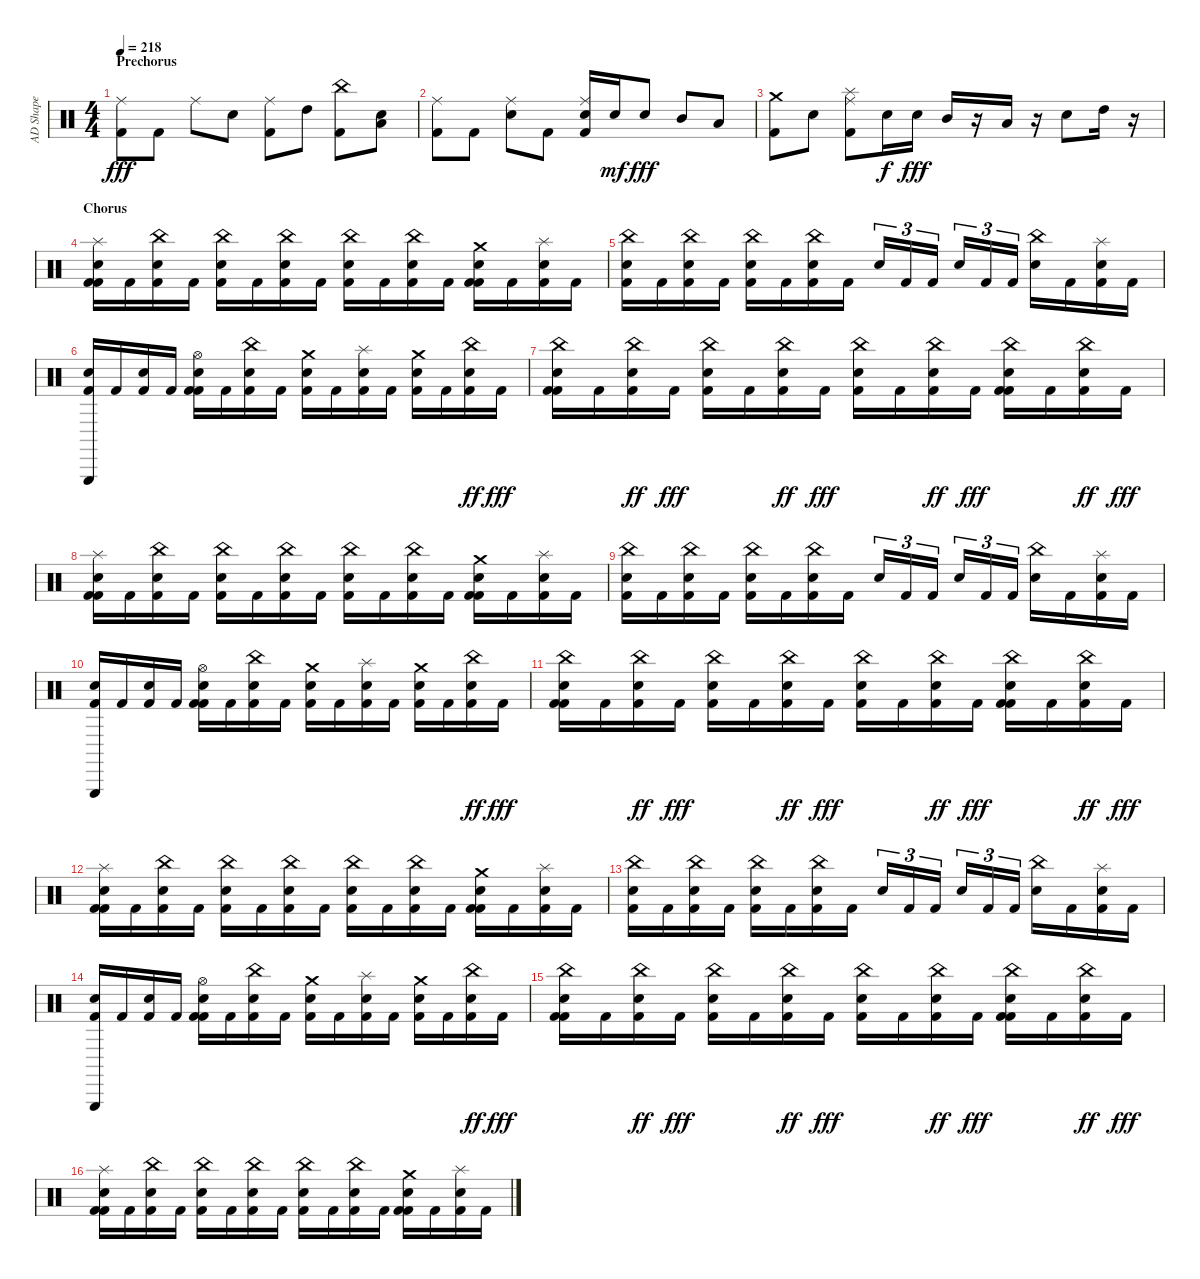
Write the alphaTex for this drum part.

\track ("AD Shape" "AD Shape") {instrument percussion}
\staff {score}
\articulation defaults
\ts (4 4)
\section ("" "Prechorus")
\tempo 218
\clef neutral
\ks c
("Kick (hit) 2" "Ride (middle)").8{dy fff} "Kick (hit) 2".8 "Ride (middle)".8 "Snare (hit) 2".8 ("Kick (hit) 2" "Ride (middle)").8 "High Tom (hit)".8 ("Kick (hit) 2" "China (hit)").8 ("Snare (hit) 2" "Low Tom (hit)").8 |
("Kick (hit) 2" "Ride (middle)").8 "Kick (hit) 2".8 ("Snare (hit) 2" "Ride (middle)").8 "Kick (hit) 2".8 ("Kick (hit) 2" "Snare (hit) 2" "Ride (middle)").16 "Snare (hit) 2".16{dy mf} "Snare (hit) 2".8{dy fff} "Mid Tom (hit)".8 "Low Tom (hit)".8 |
("Kick (hit) 2" "Crash medium (hit)").8 "Snare (hit) 2".8 ("Kick (hit) 2" "Ride (middle)" "Splash (hit)").8 "Snare (hit) 2".16{dy f} "Snare (hit) 2".16{dy fff} "Mid Tom (hit)".16 r.16 "Low Tom (hit)".16 r.16 "Snare (hit) 2".8 "High Tom (hit)".16 r.16 |
\section ("" "Chorus")
("Kick (hit) 2" "Kick (hit) 2" "Snare (hit) 2" "Splash (hit)").16 "Kick (hit) 2".16 ("Kick (hit) 2" "Snare (hit) 2" "China (hit)").16 "Kick (hit) 2".16 ("Kick (hit) 2" "Snare (hit) 2" "China (hit)").16 "Kick (hit) 2".16 ("Kick (hit) 2" "Snare (hit) 2" "China (hit)").16 "Kick (hit) 2".16 ("Kick (hit) 2" "Snare (hit) 2" "China (hit)").16 "Kick (hit) 2".16 ("Kick (hit) 2" "Snare (hit) 2" "China (hit)").16 "Kick (hit) 2".16 ("Kick (hit) 2" "Kick (hit) 2" "Snare (hit) 2" "Crash medium (hit)").16 "Kick (hit) 2".16 ("Kick (hit) 2" "Snare (hit) 2" "Splash (hit)").16 "Kick (hit) 2".16 |
("Kick (hit) 2" "Snare (hit) 2" "China (hit)").16 "Kick (hit) 2".16 ("Kick (hit) 2" "Snare (hit) 2" "China (hit)").16 "Kick (hit) 2".16 ("Kick (hit) 2" "Snare (hit) 2" "China (hit)").16 "Kick (hit) 2".16 ("Kick (hit) 2" "Snare (hit) 2" "China (hit)").16 "Kick (hit) 2".16 "Snare (hit) 2".16{tu (3 2)} "Kick (hit) 2".16{tu (3 2)} "Kick (hit) 2".16{tu (3 2)} "Snare (hit) 2".16{tu (3 2)} "Kick (hit) 2".16{tu (3 2)} "Kick (hit) 2".16{tu (3 2)} ("Snare (hit) 2" "China (hit)").16 "Kick (hit) 2".16 ("Kick (hit) 2" "Snare (hit) 2" "Splash (hit)").16 "Kick (hit) 2".16 |
("Kick (hit) 2" "Snare (hit) 2" "Triangle (hit)").16 "Kick (hit) 2".16 ("Kick (hit) 2" "Snare (hit) 2").16 "Kick (hit) 2".16 ("Kick (hit) 2" "Kick (hit) 2" "Snare (hit) 2" "Hi-Hat (open)").16 "Kick (hit) 2".16 ("Kick (hit) 2" "Snare (hit) 2" "China (hit)").16 "Kick (hit) 2".16 ("Kick (hit) 2" "Snare (hit) 2" "Crash medium (hit)").16 "Kick (hit) 2".16 ("Kick (hit) 2" "Snare (hit) 2" "Splash (hit)").16 "Kick (hit) 2".16 ("Kick (hit) 2" "Snare (hit) 2" "Crash medium (hit)").16 "Kick (hit) 2".16 ("Kick (hit) 2" "Snare (hit) 2" "China (hit)").16{dy ff} "Kick (hit) 2".16{dy fff} |
("Kick (hit) 2" "Kick (hit) 2" "Snare (hit) 2" "China (hit)").16 "Kick (hit) 2".16 ("Kick (hit) 2" "Snare (hit) 2" "China (hit)").16{dy ff} "Kick (hit) 2".16{dy fff} ("Kick (hit) 2" "Snare (hit) 2" "China (hit)").16 "Kick (hit) 2".16 ("Kick (hit) 2" "Snare (hit) 2" "China (hit)").16{dy ff} "Kick (hit) 2".16{dy fff} ("Kick (hit) 2" "Snare (hit) 2" "China (hit)").16 "Kick (hit) 2".16 ("Kick (hit) 2" "Snare (hit) 2" "China (hit)").16{dy ff} "Kick (hit) 2".16{dy fff} ("Kick (hit) 2" "Kick (hit) 2" "Snare (hit) 2" "China (hit)").16 "Kick (hit) 2".16 ("Kick (hit) 2" "Snare (hit) 2" "China (hit)").16{dy ff} "Kick (hit) 2".16{dy fff} |
("Kick (hit) 2" "Kick (hit) 2" "Snare (hit) 2" "Splash (hit)").16 "Kick (hit) 2".16 ("Kick (hit) 2" "Snare (hit) 2" "China (hit)").16 "Kick (hit) 2".16 ("Kick (hit) 2" "Snare (hit) 2" "China (hit)").16 "Kick (hit) 2".16 ("Kick (hit) 2" "Snare (hit) 2" "China (hit)").16 "Kick (hit) 2".16 ("Kick (hit) 2" "Snare (hit) 2" "China (hit)").16 "Kick (hit) 2".16 ("Kick (hit) 2" "Snare (hit) 2" "China (hit)").16 "Kick (hit) 2".16 ("Kick (hit) 2" "Kick (hit) 2" "Snare (hit) 2" "Crash medium (hit)").16 "Kick (hit) 2".16 ("Kick (hit) 2" "Snare (hit) 2" "Splash (hit)").16 "Kick (hit) 2".16 |
("Kick (hit) 2" "Snare (hit) 2" "China (hit)").16 "Kick (hit) 2".16 ("Kick (hit) 2" "Snare (hit) 2" "China (hit)").16 "Kick (hit) 2".16 ("Kick (hit) 2" "Snare (hit) 2" "China (hit)").16 "Kick (hit) 2".16 ("Kick (hit) 2" "Snare (hit) 2" "China (hit)").16 "Kick (hit) 2".16 "Snare (hit) 2".16{tu (3 2)} "Kick (hit) 2".16{tu (3 2)} "Kick (hit) 2".16{tu (3 2)} "Snare (hit) 2".16{tu (3 2)} "Kick (hit) 2".16{tu (3 2)} "Kick (hit) 2".16{tu (3 2)} ("Snare (hit) 2" "China (hit)").16 "Kick (hit) 2".16 ("Kick (hit) 2" "Snare (hit) 2" "Splash (hit)").16 "Kick (hit) 2".16 |
("Kick (hit) 2" "Snare (hit) 2" "Triangle (hit)").16 "Kick (hit) 2".16 ("Kick (hit) 2" "Snare (hit) 2").16 "Kick (hit) 2".16 ("Kick (hit) 2" "Kick (hit) 2" "Snare (hit) 2" "Hi-Hat (open)").16 "Kick (hit) 2".16 ("Kick (hit) 2" "Snare (hit) 2" "China (hit)").16 "Kick (hit) 2".16 ("Kick (hit) 2" "Snare (hit) 2" "Crash medium (hit)").16 "Kick (hit) 2".16 ("Kick (hit) 2" "Snare (hit) 2" "Splash (hit)").16 "Kick (hit) 2".16 ("Kick (hit) 2" "Snare (hit) 2" "Crash medium (hit)").16 "Kick (hit) 2".16 ("Kick (hit) 2" "Snare (hit) 2" "China (hit)").16{dy ff} "Kick (hit) 2".16{dy fff} |
("Kick (hit) 2" "Kick (hit) 2" "Snare (hit) 2" "China (hit)").16 "Kick (hit) 2".16 ("Kick (hit) 2" "Snare (hit) 2" "China (hit)").16{dy ff} "Kick (hit) 2".16{dy fff} ("Kick (hit) 2" "Snare (hit) 2" "China (hit)").16 "Kick (hit) 2".16 ("Kick (hit) 2" "Snare (hit) 2" "China (hit)").16{dy ff} "Kick (hit) 2".16{dy fff} ("Kick (hit) 2" "Snare (hit) 2" "China (hit)").16 "Kick (hit) 2".16 ("Kick (hit) 2" "Snare (hit) 2" "China (hit)").16{dy ff} "Kick (hit) 2".16{dy fff} ("Kick (hit) 2" "Kick (hit) 2" "Snare (hit) 2" "China (hit)").16 "Kick (hit) 2".16 ("Kick (hit) 2" "Snare (hit) 2" "China (hit)").16{dy ff} "Kick (hit) 2".16{dy fff} |
("Kick (hit) 2" "Kick (hit) 2" "Snare (hit) 2" "Splash (hit)").16 "Kick (hit) 2".16 ("Kick (hit) 2" "Snare (hit) 2" "China (hit)").16 "Kick (hit) 2".16 ("Kick (hit) 2" "Snare (hit) 2" "China (hit)").16 "Kick (hit) 2".16 ("Kick (hit) 2" "Snare (hit) 2" "China (hit)").16 "Kick (hit) 2".16 ("Kick (hit) 2" "Snare (hit) 2" "China (hit)").16 "Kick (hit) 2".16 ("Kick (hit) 2" "Snare (hit) 2" "China (hit)").16 "Kick (hit) 2".16 ("Kick (hit) 2" "Kick (hit) 2" "Snare (hit) 2" "Crash medium (hit)").16 "Kick (hit) 2".16 ("Kick (hit) 2" "Snare (hit) 2" "Splash (hit)").16 "Kick (hit) 2".16 |
("Kick (hit) 2" "Snare (hit) 2" "China (hit)").16 "Kick (hit) 2".16 ("Kick (hit) 2" "Snare (hit) 2" "China (hit)").16 "Kick (hit) 2".16 ("Kick (hit) 2" "Snare (hit) 2" "China (hit)").16 "Kick (hit) 2".16 ("Kick (hit) 2" "Snare (hit) 2" "China (hit)").16 "Kick (hit) 2".16 "Snare (hit) 2".16{tu (3 2)} "Kick (hit) 2".16{tu (3 2)} "Kick (hit) 2".16{tu (3 2)} "Snare (hit) 2".16{tu (3 2)} "Kick (hit) 2".16{tu (3 2)} "Kick (hit) 2".16{tu (3 2)} ("Snare (hit) 2" "China (hit)").16 "Kick (hit) 2".16 ("Kick (hit) 2" "Snare (hit) 2" "Splash (hit)").16 "Kick (hit) 2".16 |
("Kick (hit) 2" "Snare (hit) 2" "Triangle (hit)").16 "Kick (hit) 2".16 ("Kick (hit) 2" "Snare (hit) 2").16 "Kick (hit) 2".16 ("Kick (hit) 2" "Kick (hit) 2" "Snare (hit) 2" "Hi-Hat (open)").16 "Kick (hit) 2".16 ("Kick (hit) 2" "Snare (hit) 2" "China (hit)").16 "Kick (hit) 2".16 ("Kick (hit) 2" "Snare (hit) 2" "Crash medium (hit)").16 "Kick (hit) 2".16 ("Kick (hit) 2" "Snare (hit) 2" "Splash (hit)").16 "Kick (hit) 2".16 ("Kick (hit) 2" "Snare (hit) 2" "Crash medium (hit)").16 "Kick (hit) 2".16 ("Kick (hit) 2" "Snare (hit) 2" "China (hit)").16{dy ff} "Kick (hit) 2".16{dy fff} |
("Kick (hit) 2" "Kick (hit) 2" "Snare (hit) 2" "China (hit)").16 "Kick (hit) 2".16 ("Kick (hit) 2" "Snare (hit) 2" "China (hit)").16{dy ff} "Kick (hit) 2".16{dy fff} ("Kick (hit) 2" "Snare (hit) 2" "China (hit)").16 "Kick (hit) 2".16 ("Kick (hit) 2" "Snare (hit) 2" "China (hit)").16{dy ff} "Kick (hit) 2".16{dy fff} ("Kick (hit) 2" "Snare (hit) 2" "China (hit)").16 "Kick (hit) 2".16 ("Kick (hit) 2" "Snare (hit) 2" "China (hit)").16{dy ff} "Kick (hit) 2".16{dy fff} ("Kick (hit) 2" "Kick (hit) 2" "Snare (hit) 2" "China (hit)").16 "Kick (hit) 2".16 ("Kick (hit) 2" "Snare (hit) 2" "China (hit)").16{dy ff} "Kick (hit) 2".16{dy fff} |
("Kick (hit) 2" "Kick (hit) 2" "Snare (hit) 2" "Splash (hit)").16 "Kick (hit) 2".16 ("Kick (hit) 2" "Snare (hit) 2" "China (hit)").16 "Kick (hit) 2".16 ("Kick (hit) 2" "Snare (hit) 2" "China (hit)").16 "Kick (hit) 2".16 ("Kick (hit) 2" "Snare (hit) 2" "China (hit)").16 "Kick (hit) 2".16 ("Kick (hit) 2" "Snare (hit) 2" "China (hit)").16 "Kick (hit) 2".16 ("Kick (hit) 2" "Snare (hit) 2" "China (hit)").16 "Kick (hit) 2".16 ("Kick (hit) 2" "Kick (hit) 2" "Snare (hit) 2" "Crash medium (hit)").16 "Kick (hit) 2".16 ("Kick (hit) 2" "Snare (hit) 2" "Splash (hit)").16 "Kick (hit) 2".16
